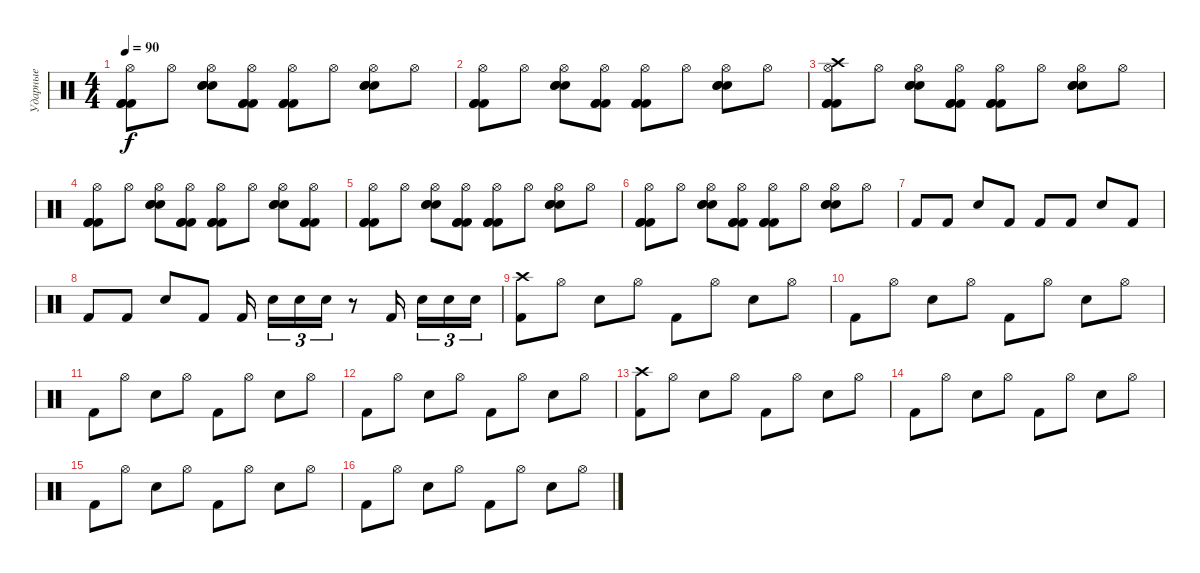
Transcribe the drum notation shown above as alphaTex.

\track ("Ударные" "Ударные") {instrument percussion}
\staff {score}
\articulation defaults
\ts (4 4)
\tempo 90
\clef neutral
\ks c
("Hi-Hat (open)" "Kick (hit) 2" "Kick (hit) 2" "Kick (hit) 2").8{dy f} "Hi-Hat (open)".8 ("Hi-Hat (open)" "Electric Snare (hit)" "Electric Snare (hit)" "Electric Snare (hit)").8 ("Hi-Hat (open)" "Kick (hit) 2" "Kick (hit) 2" "Kick (hit) 2").8 ("Hi-Hat (open)" "Kick (hit) 2" "Kick (hit) 2" "Kick (hit) 2").8 "Hi-Hat (open)".8 ("Hi-Hat (open)" "Electric Snare (hit)" "Electric Snare (hit)" "Electric Snare (hit)").8 "Hi-Hat (open)".8 |
("Hi-Hat (open)" "Kick (hit) 2" "Kick (hit) 2" "Kick (hit) 2").8 "Hi-Hat (open)".8 ("Hi-Hat (open)" "Electric Snare (hit)" "Electric Snare (hit)" "Electric Snare (hit)").8 ("Hi-Hat (open)" "Kick (hit) 2" "Kick (hit) 2" "Kick (hit) 2").8 ("Hi-Hat (open)" "Kick (hit) 2" "Kick (hit) 2" "Kick (hit) 2").8 "Hi-Hat (open)".8 ("Hi-Hat (open)" "Electric Snare (hit)" "Electric Snare (hit)" "Electric Snare (hit)").8 "Hi-Hat (open)".8 |
("Hi-Hat (open)" "Crash high (hit)" "Kick (hit) 2" "Kick (hit) 2" "Kick (hit) 2").8 "Hi-Hat (open)".8 ("Hi-Hat (open)" "Electric Snare (hit)" "Electric Snare (hit)" "Electric Snare (hit)").8 ("Hi-Hat (open)" "Kick (hit) 2" "Kick (hit) 2" "Kick (hit) 2").8 ("Hi-Hat (open)" "Kick (hit) 2" "Kick (hit) 2" "Kick (hit) 2").8 "Hi-Hat (open)".8 ("Hi-Hat (open)" "Electric Snare (hit)" "Electric Snare (hit)" "Electric Snare (hit)").8 "Hi-Hat (open)".8 |
("Hi-Hat (open)" "Kick (hit) 2" "Kick (hit) 2" "Kick (hit) 2").8 "Hi-Hat (open)".8 ("Hi-Hat (open)" "Electric Snare (hit)" "Electric Snare (hit)" "Electric Snare (hit)").8 ("Hi-Hat (open)" "Kick (hit) 2" "Kick (hit) 2" "Kick (hit) 2").8 ("Hi-Hat (open)" "Kick (hit) 2" "Kick (hit) 2" "Kick (hit) 2").8 "Hi-Hat (open)".8 ("Hi-Hat (open)" "Electric Snare (hit)" "Electric Snare (hit)" "Electric Snare (hit)").8 ("Hi-Hat (open)" "Kick (hit) 2" "Kick (hit) 2" "Kick (hit) 2").8 |
("Hi-Hat (open)" "Kick (hit) 2" "Kick (hit) 2" "Kick (hit) 2").8 "Hi-Hat (open)".8 ("Hi-Hat (open)" "Electric Snare (hit)" "Electric Snare (hit)" "Electric Snare (hit)").8 ("Hi-Hat (open)" "Kick (hit) 2" "Kick (hit) 2" "Kick (hit) 2").8 ("Hi-Hat (open)" "Kick (hit) 2" "Kick (hit) 2" "Kick (hit) 2").8 "Hi-Hat (open)".8 ("Hi-Hat (open)" "Electric Snare (hit)" "Electric Snare (hit)" "Electric Snare (hit)").8 "Hi-Hat (open)".8 |
("Hi-Hat (open)" "Kick (hit) 2" "Kick (hit) 2" "Kick (hit) 2").8 "Hi-Hat (open)".8 ("Hi-Hat (open)" "Electric Snare (hit)" "Electric Snare (hit)" "Electric Snare (hit)").8 ("Hi-Hat (open)" "Kick (hit) 2" "Kick (hit) 2" "Kick (hit) 2").8 ("Hi-Hat (open)" "Kick (hit) 2" "Kick (hit) 2" "Kick (hit) 2").8 "Hi-Hat (open)".8 ("Hi-Hat (open)" "Electric Snare (hit)" "Electric Snare (hit)" "Electric Snare (hit)").8 "Hi-Hat (open)".8 |
"Kick (hit) 2".8 "Kick (hit) 2".8 "Electric Snare (hit)".8 "Kick (hit) 2".8 "Kick (hit) 2".8 "Kick (hit) 2".8 "Electric Snare (hit)".8 "Kick (hit) 2".8 |
"Kick (hit) 2".8 "Kick (hit) 2".8 "Electric Snare (hit)".8 "Kick (hit) 2".8 "Kick (hit) 2".16{beam splitsecondary} "Electric Snare (hit)".16{tu (3 2)} "Electric Snare (hit)".16{tu (3 2)} "Electric Snare (hit)".16{tu (3 2)} r.8 "Kick (hit) 2".16{beam splitsecondary} "Electric Snare (hit)".16{tu (3 2)} "Electric Snare (hit)".16{tu (3 2)} "Electric Snare (hit)".16{tu (3 2)} |
("Crash high (hit)" "Kick (hit) 2").8 "Hi-Hat (open)".8 "Electric Snare (hit)".8 "Hi-Hat (open)".8 "Kick (hit) 2".8 "Hi-Hat (open)".8 "Electric Snare (hit)".8 "Hi-Hat (open)".8 |
"Kick (hit) 2".8 "Hi-Hat (open)".8 "Electric Snare (hit)".8 "Hi-Hat (open)".8 "Kick (hit) 2".8 "Hi-Hat (open)".8 "Electric Snare (hit)".8 "Hi-Hat (open)".8 |
"Kick (hit) 2".8 "Hi-Hat (open)".8 "Electric Snare (hit)".8 "Hi-Hat (open)".8 "Kick (hit) 2".8 "Hi-Hat (open)".8 "Electric Snare (hit)".8 "Hi-Hat (open)".8 |
"Kick (hit) 2".8 "Hi-Hat (open)".8 "Electric Snare (hit)".8 "Hi-Hat (open)".8 "Kick (hit) 2".8 "Hi-Hat (open)".8 "Electric Snare (hit)".8 "Hi-Hat (open)".8 |
("Crash high (hit)" "Kick (hit) 2").8 "Hi-Hat (open)".8 "Electric Snare (hit)".8 "Hi-Hat (open)".8 "Kick (hit) 2".8 "Hi-Hat (open)".8 "Electric Snare (hit)".8 "Hi-Hat (open)".8 |
"Kick (hit) 2".8 "Hi-Hat (open)".8 "Electric Snare (hit)".8 "Hi-Hat (open)".8 "Kick (hit) 2".8 "Hi-Hat (open)".8 "Electric Snare (hit)".8 "Hi-Hat (open)".8 |
"Kick (hit) 2".8 "Hi-Hat (open)".8 "Electric Snare (hit)".8 "Hi-Hat (open)".8 "Kick (hit) 2".8 "Hi-Hat (open)".8 "Electric Snare (hit)".8 "Hi-Hat (open)".8 |
"Kick (hit) 2".8 "Hi-Hat (open)".8 "Electric Snare (hit)".8 "Hi-Hat (open)".8 "Kick (hit) 2".8 "Hi-Hat (open)".8 "Electric Snare (hit)".8 "Hi-Hat (open)".8
